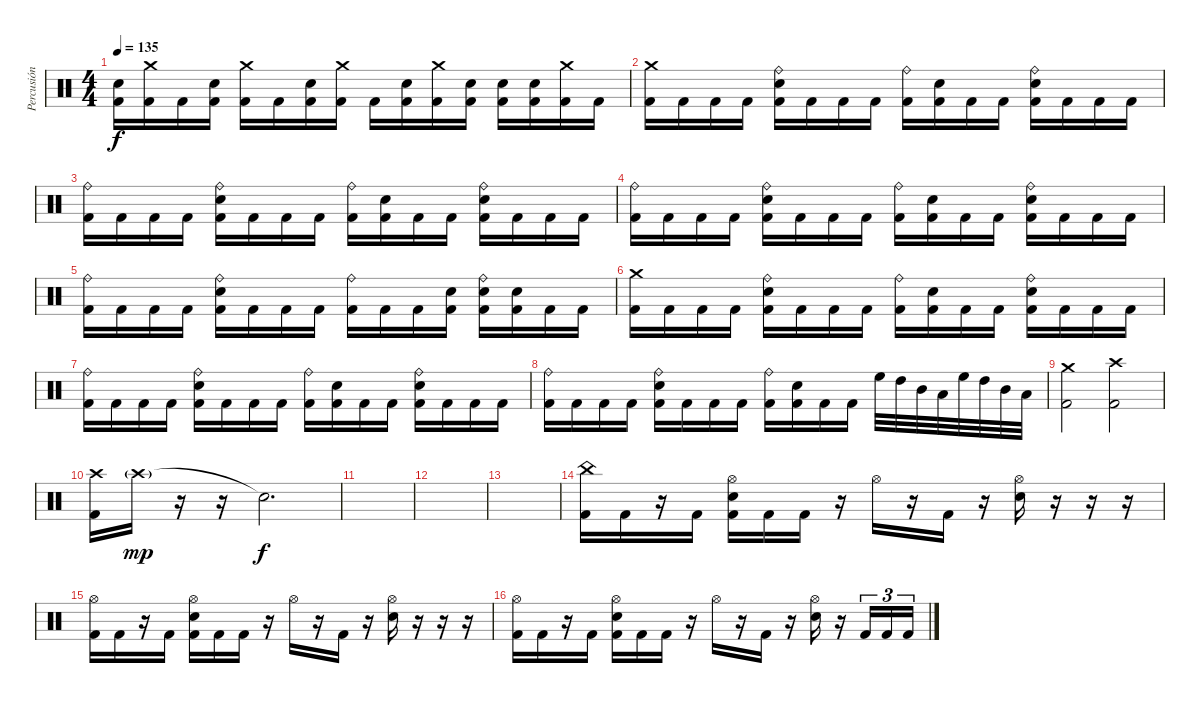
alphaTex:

\track ("Percusión" "Percusión") {instrument percussion}
\staff {score}
\articulation defaults
\ts (4 4)
\tempo 135
\clef neutral
\ks c
("Electric Snare (hit)" "Kick (hit) 2").16{dy f} ("Crash medium (hit)" "Kick (hit) 2").16 "Kick (hit) 2".16 ("Electric Snare (hit)" "Kick (hit) 2").16 ("Crash medium (hit)" "Kick (hit) 2").16 "Kick (hit) 2".16 ("Electric Snare (hit)" "Kick (hit) 2").16 ("Crash medium (hit)" "Kick (hit) 2").16 "Kick (hit) 2".16 ("Electric Snare (hit)" "Kick (hit) 2").16 ("Crash medium (hit)" "Kick (hit) 2").16 ("Electric Snare (hit)" "Kick (hit) 2").16 ("Electric Snare (hit)" "Kick (hit) 2").16 ("Electric Snare (hit)" "Kick (hit) 2").16 ("Crash medium (hit)" "Kick (hit) 2").16 "Kick (hit) 2".16 |
("Crash medium (hit)" "Kick (hit) 2").16 "Kick (hit) 2".16 "Kick (hit) 2".16 "Kick (hit) 2".16 ("Ride (bell)" "Electric Snare (hit)" "Kick (hit) 2").16 "Kick (hit) 2".16 "Kick (hit) 2".16 "Kick (hit) 2".16 ("Ride (bell)" "Kick (hit) 2").16 ("Electric Snare (hit)" "Kick (hit) 2").16 "Kick (hit) 2".16 "Kick (hit) 2".16 ("Ride (bell)" "Electric Snare (hit)" "Kick (hit) 2").16 "Kick (hit) 2".16 "Kick (hit) 2".16 "Kick (hit) 2".16 |
("Ride (bell)" "Kick (hit) 2").16 "Kick (hit) 2".16 "Kick (hit) 2".16 "Kick (hit) 2".16 ("Ride (bell)" "Electric Snare (hit)" "Kick (hit) 2").16 "Kick (hit) 2".16 "Kick (hit) 2".16 "Kick (hit) 2".16 ("Ride (bell)" "Kick (hit) 2").16 ("Electric Snare (hit)" "Kick (hit) 2").16 "Kick (hit) 2".16 "Kick (hit) 2".16 ("Ride (bell)" "Electric Snare (hit)" "Kick (hit) 2").16 "Kick (hit) 2".16 "Kick (hit) 2".16 "Kick (hit) 2".16 |
("Ride (bell)" "Kick (hit) 2").16 "Kick (hit) 2".16 "Kick (hit) 2".16 "Kick (hit) 2".16 ("Ride (bell)" "Electric Snare (hit)" "Kick (hit) 2").16 "Kick (hit) 2".16 "Kick (hit) 2".16 "Kick (hit) 2".16 ("Ride (bell)" "Kick (hit) 2").16 ("Electric Snare (hit)" "Kick (hit) 2").16 "Kick (hit) 2".16 "Kick (hit) 2".16 ("Ride (bell)" "Electric Snare (hit)" "Kick (hit) 2").16 "Kick (hit) 2".16 "Kick (hit) 2".16 "Kick (hit) 2".16 |
("Ride (bell)" "Kick (hit) 2").16 "Kick (hit) 2".16 "Kick (hit) 2".16 "Kick (hit) 2".16 ("Ride (bell)" "Electric Snare (hit)" "Kick (hit) 2").16 "Kick (hit) 2".16 "Kick (hit) 2".16 "Kick (hit) 2".16 ("Ride (bell)" "Kick (hit) 2").16 "Kick (hit) 2".16 "Kick (hit) 2".16 ("Electric Snare (hit)" "Kick (hit) 2").16 ("Ride (bell)" "Electric Snare (hit)" "Kick (hit) 2").16 ("Electric Snare (hit)" "Kick (hit) 2").16 "Kick (hit) 2".16 "Kick (hit) 2".16 |
("Crash medium (hit)" "Kick (hit) 2").16 "Kick (hit) 2".16 "Kick (hit) 2".16 "Kick (hit) 2".16 ("Ride (bell)" "Electric Snare (hit)" "Kick (hit) 2").16 "Kick (hit) 2".16 "Kick (hit) 2".16 "Kick (hit) 2".16 ("Ride (bell)" "Kick (hit) 2").16 ("Electric Snare (hit)" "Kick (hit) 2").16 "Kick (hit) 2".16 "Kick (hit) 2".16 ("Ride (bell)" "Electric Snare (hit)" "Kick (hit) 2").16 "Kick (hit) 2".16 "Kick (hit) 2".16 "Kick (hit) 2".16 |
("Ride (bell)" "Kick (hit) 2").16 "Kick (hit) 2".16 "Kick (hit) 2".16 "Kick (hit) 2".16 ("Ride (bell)" "Electric Snare (hit)" "Kick (hit) 2").16 "Kick (hit) 2".16 "Kick (hit) 2".16 "Kick (hit) 2".16 ("Ride (bell)" "Kick (hit) 2").16 ("Electric Snare (hit)" "Kick (hit) 2").16 "Kick (hit) 2".16 "Kick (hit) 2".16 ("Ride (bell)" "Electric Snare (hit)" "Kick (hit) 2").16 "Kick (hit) 2".16 "Kick (hit) 2".16 "Kick (hit) 2".16 |
("Ride (bell)" "Kick (hit) 2").16 "Kick (hit) 2".16 "Kick (hit) 2".16 "Kick (hit) 2".16 ("Ride (bell)" "Electric Snare (hit)" "Kick (hit) 2").16 "Kick (hit) 2".16 "Kick (hit) 2".16 "Kick (hit) 2".16 ("Ride (bell)" "Kick (hit) 2").16 ("Electric Snare (hit)" "Kick (hit) 2").16 "Kick (hit) 2".16 "Kick (hit) 2".16 "High Floor Tom (hit)".32 "High Tom (hit)".32 "Mid Tom (hit)".32 "Low Tom (hit)".32 "High Floor Tom (hit)".32 "High Tom (hit)".32 "Mid Tom (hit)".32 "Low Tom (hit)".32 |
("Crash medium (hit)" "Kick (hit) 2").2 ("Crash high (hit)" "Kick (hit) 2").2 |
("Crash high (hit)" "Kick (hit) 2").16 "Crash high (hit)"{g}.16{dy mp} r.16 r.16 "Snare (hit)"{t}.2{d dy f} |
|
|
|
("China (hit)" "Kick (hit) 2").16 "Kick (hit) 2".16 r.16 "Kick (hit) 2".16 ("Hi-Hat (open)" "Electric Snare (hit)" "Kick (hit) 2").16 "Kick (hit) 2".16 "Kick (hit) 2".16 r.16 "Hi-Hat (open)".16 r.16 "Kick (hit) 2".16 r.16 ("Hi-Hat (open)" "Electric Snare (hit)").16 r.16 r.16 r.16 |
("Hi-Hat (open)" "Kick (hit) 2").16 "Kick (hit) 2".16 r.16 "Kick (hit) 2".16 ("Hi-Hat (open)" "Electric Snare (hit)" "Kick (hit) 2").16 "Kick (hit) 2".16 "Kick (hit) 2".16 r.16 "Hi-Hat (open)".16 r.16 "Kick (hit) 2".16 r.16 ("Hi-Hat (open)" "Electric Snare (hit)").16 r.16 r.16 r.16 |
("Hi-Hat (open)" "Kick (hit) 2").16 "Kick (hit) 2".16 r.16 "Kick (hit) 2".16 ("Hi-Hat (open)" "Electric Snare (hit)" "Kick (hit) 2").16 "Kick (hit) 2".16 "Kick (hit) 2".16 r.16 "Hi-Hat (open)".16 r.16 "Kick (hit) 2".16 r.16 ("Hi-Hat (open)" "Electric Snare (hit)").16 r.16 "Kick (hit) 2".16{tu (3 2)} "Kick (hit) 2".16{tu (3 2)} "Kick (hit) 2".16{tu (3 2)}
